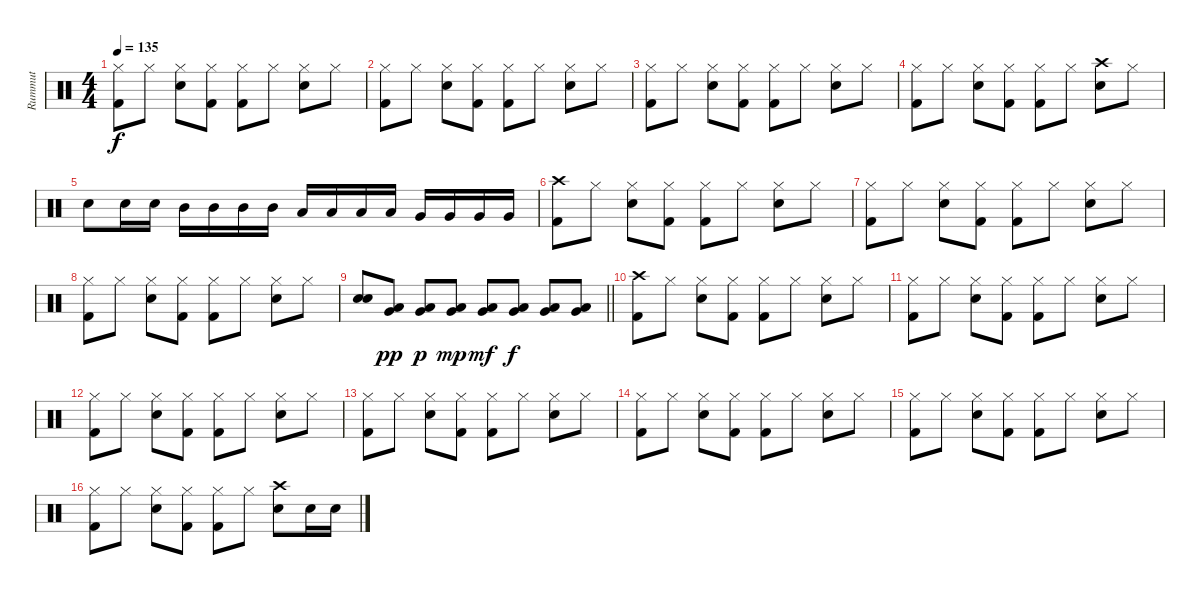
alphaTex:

\track ("Rummut" "Rummut") {instrument percussion}
\staff {score}
\articulation defaults
\ts (4 4)
\tempo 135
\clef neutral
\ks c
("Hi-Hat (closed)" "Kick (hit) 2").8{dy f} "Hi-Hat (closed)".8 ("Hi-Hat (closed)" "Electric Snare (hit)").8 ("Hi-Hat (closed)" "Kick (hit) 2").8 ("Hi-Hat (closed)" "Kick (hit) 2").8 "Hi-Hat (closed)".8 ("Hi-Hat (closed)" "Electric Snare (hit)").8 "Hi-Hat (closed)".8 |
("Hi-Hat (closed)" "Kick (hit) 2").8 "Hi-Hat (closed)".8 ("Hi-Hat (closed)" "Electric Snare (hit)").8 ("Hi-Hat (closed)" "Kick (hit) 2").8 ("Hi-Hat (closed)" "Kick (hit) 2").8 "Hi-Hat (closed)".8 ("Hi-Hat (closed)" "Electric Snare (hit)").8 "Hi-Hat (closed)".8 |
("Hi-Hat (closed)" "Kick (hit) 2").8 "Hi-Hat (closed)".8 ("Hi-Hat (closed)" "Electric Snare (hit)").8 ("Hi-Hat (closed)" "Kick (hit) 2").8 ("Hi-Hat (closed)" "Kick (hit) 2").8 "Hi-Hat (closed)".8 ("Hi-Hat (closed)" "Electric Snare (hit)").8 "Hi-Hat (closed)".8 |
("Hi-Hat (closed)" "Kick (hit) 2").8 "Hi-Hat (closed)".8 ("Hi-Hat (closed)" "Electric Snare (hit)").8 ("Hi-Hat (closed)" "Kick (hit) 2").8 ("Hi-Hat (closed)" "Kick (hit) 2").8 "Hi-Hat (closed)".8 ("Crash high (hit)" "Electric Snare (hit)").8 "Hi-Hat (closed)".8 |
"Electric Snare (hit)".8 "Electric Snare (hit)".16 "Electric Snare (hit)".16 "Mid Tom (hit)".16 "Mid Tom (hit)".16 "Mid Tom (hit)".16 "Mid Tom (hit)".16 "Low Tom (hit)".16 "Low Tom (hit)".16 "Low Tom (hit)".16 "Low Tom (hit)".16 "Very Low Tom (hit)".16 "Very Low Tom (hit)".16 "Very Low Tom (hit)".16 "Very Low Tom (hit)".16 |
("Crash high (hit)" "Kick (hit) 2").8 "Hi-Hat (closed)".8 ("Hi-Hat (closed)" "Electric Snare (hit)").8 ("Hi-Hat (closed)" "Kick (hit) 2").8 ("Hi-Hat (closed)" "Kick (hit) 2").8 "Hi-Hat (closed)".8 ("Hi-Hat (closed)" "Electric Snare (hit)").8 "Hi-Hat (closed)".8 |
("Hi-Hat (closed)" "Kick (hit) 2").8 "Hi-Hat (closed)".8 ("Hi-Hat (closed)" "Electric Snare (hit)").8 ("Hi-Hat (closed)" "Kick (hit) 2").8 ("Hi-Hat (closed)" "Kick (hit) 2").8 "Hi-Hat (closed)".8 ("Hi-Hat (closed)" "Electric Snare (hit)").8 "Hi-Hat (closed)".8 |
("Hi-Hat (closed)" "Kick (hit) 2").8 "Hi-Hat (closed)".8 ("Hi-Hat (closed)" "Electric Snare (hit)").8 ("Hi-Hat (closed)" "Kick (hit) 2").8 ("Hi-Hat (closed)" "Kick (hit) 2").8 "Hi-Hat (closed)".8 ("Hi-Hat (closed)" "Electric Snare (hit)").8 "Hi-Hat (closed)".8 |
\barLineRight lightlight
("Electric Snare (hit)" "Electric Snare (hit)").8 ("Very Low Tom (hit)" "Low Floor Tom (hit)").8{dy pp} ("Very Low Tom (hit)" "Low Floor Tom (hit)").8{dy p} ("Very Low Tom (hit)" "Low Floor Tom (hit)").8{dy mp} ("Very Low Tom (hit)" "Low Floor Tom (hit)").8{dy mf} ("Very Low Tom (hit)" "Low Floor Tom (hit)").8{dy f} ("Very Low Tom (hit)" "Low Floor Tom (hit)").8 ("Very Low Tom (hit)" "Low Floor Tom (hit)").8 |
("Crash high (hit)" "Kick (hit) 2").8 "Hi-Hat (closed)".8 ("Hi-Hat (closed)" "Electric Snare (hit)").8 ("Hi-Hat (closed)" "Kick (hit) 2").8 ("Hi-Hat (closed)" "Kick (hit) 2").8 "Hi-Hat (closed)".8 ("Hi-Hat (closed)" "Electric Snare (hit)").8 "Hi-Hat (closed)".8 |
("Hi-Hat (closed)" "Kick (hit) 2").8 "Hi-Hat (closed)".8 ("Hi-Hat (closed)" "Electric Snare (hit)").8 ("Hi-Hat (closed)" "Kick (hit) 2").8 ("Hi-Hat (closed)" "Kick (hit) 2").8 "Hi-Hat (closed)".8 ("Hi-Hat (closed)" "Electric Snare (hit)").8 "Hi-Hat (closed)".8 |
("Hi-Hat (closed)" "Kick (hit) 2").8 "Hi-Hat (closed)".8 ("Hi-Hat (closed)" "Electric Snare (hit)").8 ("Hi-Hat (closed)" "Kick (hit) 2").8 ("Hi-Hat (closed)" "Kick (hit) 2").8 "Hi-Hat (closed)".8 ("Hi-Hat (closed)" "Electric Snare (hit)").8 "Hi-Hat (closed)".8 |
("Hi-Hat (closed)" "Kick (hit) 2").8 "Hi-Hat (closed)".8 ("Hi-Hat (closed)" "Electric Snare (hit)").8 ("Hi-Hat (closed)" "Kick (hit) 2").8 ("Hi-Hat (closed)" "Kick (hit) 2").8 "Hi-Hat (closed)".8 ("Hi-Hat (closed)" "Electric Snare (hit)").8 "Hi-Hat (closed)".8 |
("Hi-Hat (closed)" "Kick (hit) 2").8 "Hi-Hat (closed)".8 ("Hi-Hat (closed)" "Electric Snare (hit)").8 ("Hi-Hat (closed)" "Kick (hit) 2").8 ("Hi-Hat (closed)" "Kick (hit) 2").8 "Hi-Hat (closed)".8 ("Hi-Hat (closed)" "Electric Snare (hit)").8 "Hi-Hat (closed)".8 |
("Hi-Hat (closed)" "Kick (hit) 2").8 "Hi-Hat (closed)".8 ("Hi-Hat (closed)" "Electric Snare (hit)").8 ("Hi-Hat (closed)" "Kick (hit) 2").8 ("Hi-Hat (closed)" "Kick (hit) 2").8 "Hi-Hat (closed)".8 ("Hi-Hat (closed)" "Electric Snare (hit)").8 "Hi-Hat (closed)".8 |
("Hi-Hat (closed)" "Kick (hit) 2").8 "Hi-Hat (closed)".8 ("Hi-Hat (closed)" "Electric Snare (hit)").8 ("Hi-Hat (closed)" "Kick (hit) 2").8 ("Hi-Hat (closed)" "Kick (hit) 2").8 "Hi-Hat (closed)".8 ("Crash high (hit)" "Electric Snare (hit)").8 "Electric Snare (hit)".16 "Electric Snare (hit)".16
